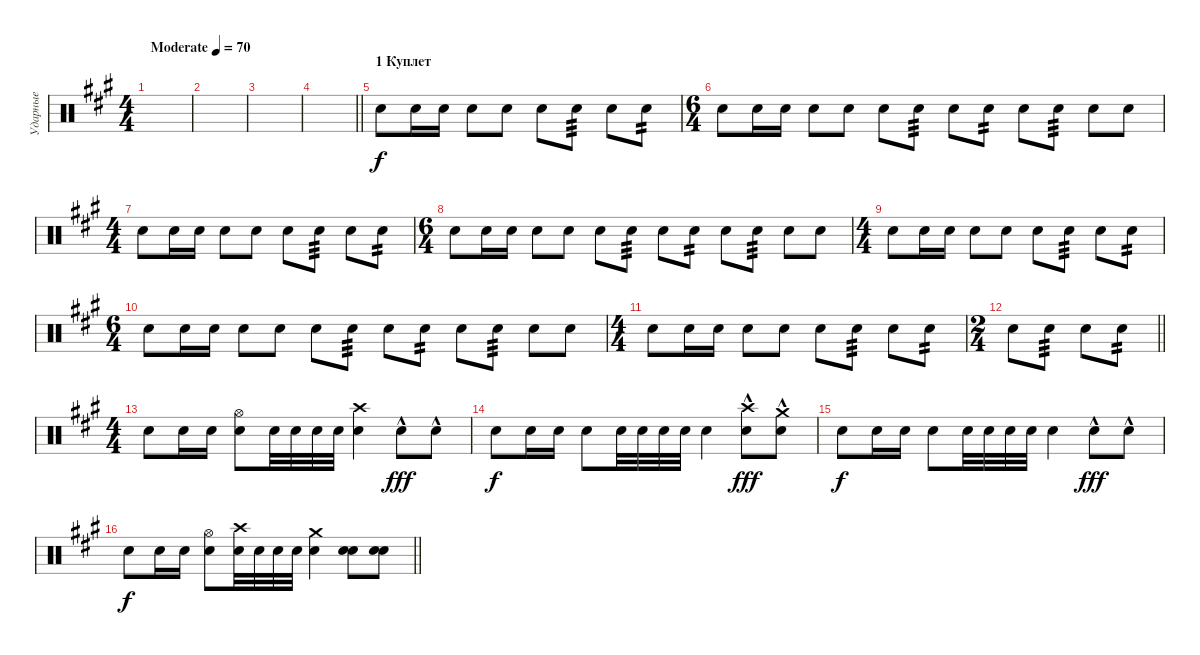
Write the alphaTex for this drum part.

\track ("Ударные" "Ударные") {instrument percussion}
\staff {score}
\articulation defaults
\ts (4 4)
\tempo (70 "Moderate")
\clef neutral
\ks a
|
|
|
\barLineRight lightlight
|
\section ("" "1 Куплет")
"Snare (hit) 2".8{volume 7} "Snare (hit) 2".16 "Snare (hit) 2".16 "Snare (hit) 2".8 "Snare (hit) 2".8 "Snare (hit) 2".8 "Snare (hit) 2".8{tp 3} "Snare (hit) 2".8 "Snare (hit) 2".8{tp 2} |
\ts (6 4)
"Snare (hit) 2".8 "Snare (hit) 2".16 "Snare (hit) 2".16 "Snare (hit) 2".8 "Snare (hit) 2".8 "Snare (hit) 2".8 "Snare (hit) 2".8{tp 3} "Snare (hit) 2".8 "Snare (hit) 2".8{tp 2} "Snare (hit) 2".8 "Snare (hit) 2".8{tp 3} "Snare (hit) 2".8 "Snare (hit) 2".8 |
\ts (4 4)
"Snare (hit) 2".8 "Snare (hit) 2".16 "Snare (hit) 2".16 "Snare (hit) 2".8 "Snare (hit) 2".8 "Snare (hit) 2".8 "Snare (hit) 2".8{tp 3} "Snare (hit) 2".8 "Snare (hit) 2".8{tp 2} |
\ts (6 4)
"Snare (hit) 2".8 "Snare (hit) 2".16 "Snare (hit) 2".16 "Snare (hit) 2".8 "Snare (hit) 2".8 "Snare (hit) 2".8 "Snare (hit) 2".8{tp 3} "Snare (hit) 2".8 "Snare (hit) 2".8{tp 2} "Snare (hit) 2".8 "Snare (hit) 2".8{tp 3} "Snare (hit) 2".8 "Snare (hit) 2".8 |
\ts (4 4)
"Snare (hit) 2".8 "Snare (hit) 2".16 "Snare (hit) 2".16 "Snare (hit) 2".8 "Snare (hit) 2".8 "Snare (hit) 2".8 "Snare (hit) 2".8{tp 3} "Snare (hit) 2".8 "Snare (hit) 2".8{tp 2} |
\ts (6 4)
"Snare (hit) 2".8 "Snare (hit) 2".16 "Snare (hit) 2".16 "Snare (hit) 2".8 "Snare (hit) 2".8 "Snare (hit) 2".8 "Snare (hit) 2".8{tp 3} "Snare (hit) 2".8 "Snare (hit) 2".8{tp 2} "Snare (hit) 2".8 "Snare (hit) 2".8{tp 3} "Snare (hit) 2".8 "Snare (hit) 2".8 |
\ts (4 4)
"Snare (hit) 2".8 "Snare (hit) 2".16 "Snare (hit) 2".16 "Snare (hit) 2".8 "Snare (hit) 2".8 "Snare (hit) 2".8 "Snare (hit) 2".8{tp 3} "Snare (hit) 2".8 "Snare (hit) 2".8{tp 2} |
\ts (2 4)
\barLineRight lightlight "Snare (hit) 2".8 "Snare (hit) 2".8{tp 3} "Snare (hit) 2".8 "Snare (hit) 2".8{tp 2}
|
\ts (4 4)
\section ("" "")
"Snare (hit) 2".8 "Snare (hit) 2".16 "Snare (hit) 2".16 ("Hi-Hat (open)" "Snare (hit) 2").8 "Snare (hit) 2".32 "Snare (hit) 2".32 "Snare (hit) 2".32 "Snare (hit) 2".32 ("Crash high (hit)" "Snare (hit) 2").4 "Snare (hit) 2"{hac}.8{dy fff} "Snare (hit) 2"{hac}.8 |
"Snare (hit) 2".8{dy f} "Snare (hit) 2".16 "Snare (hit) 2".16 "Snare (hit) 2".8 "Snare (hit) 2".32 "Snare (hit) 2".32 "Snare (hit) 2".32 "Snare (hit) 2".32 "Snare (hit) 2".4 ("Crash high (hit)" "Snare (hit) 2"{hac}).8{dy fff} ("Crash medium (hit)" "Snare (hit) 2"{hac}).8 |
"Snare (hit) 2".8{dy f} "Snare (hit) 2".16 "Snare (hit) 2".16 "Snare (hit) 2".8 "Snare (hit) 2".32 "Snare (hit) 2".32 "Snare (hit) 2".32 "Snare (hit) 2".32 "Snare (hit) 2".4 "Snare (hit) 2"{hac}.8{dy fff} "Snare (hit) 2"{hac}.8 |
\barLineRight lightlight "Snare (hit) 2".8{dy f} "Snare (hit) 2".16 "Snare (hit) 2".16
("Hi-Hat (open)" "Snare (hit) 2").8 ("Crash high (hit)" "Snare (hit) 2").32 "Snare (hit) 2".32 "Snare (hit) 2".32 "Snare (hit) 2".32 ("Crash medium (hit)" "Snare (hit) 2").4 ("Electric Snare (hit)" "Snare (hit) 2").8{volume 13} ("Electric Snare (hit)" "Snare (hit) 2").8
